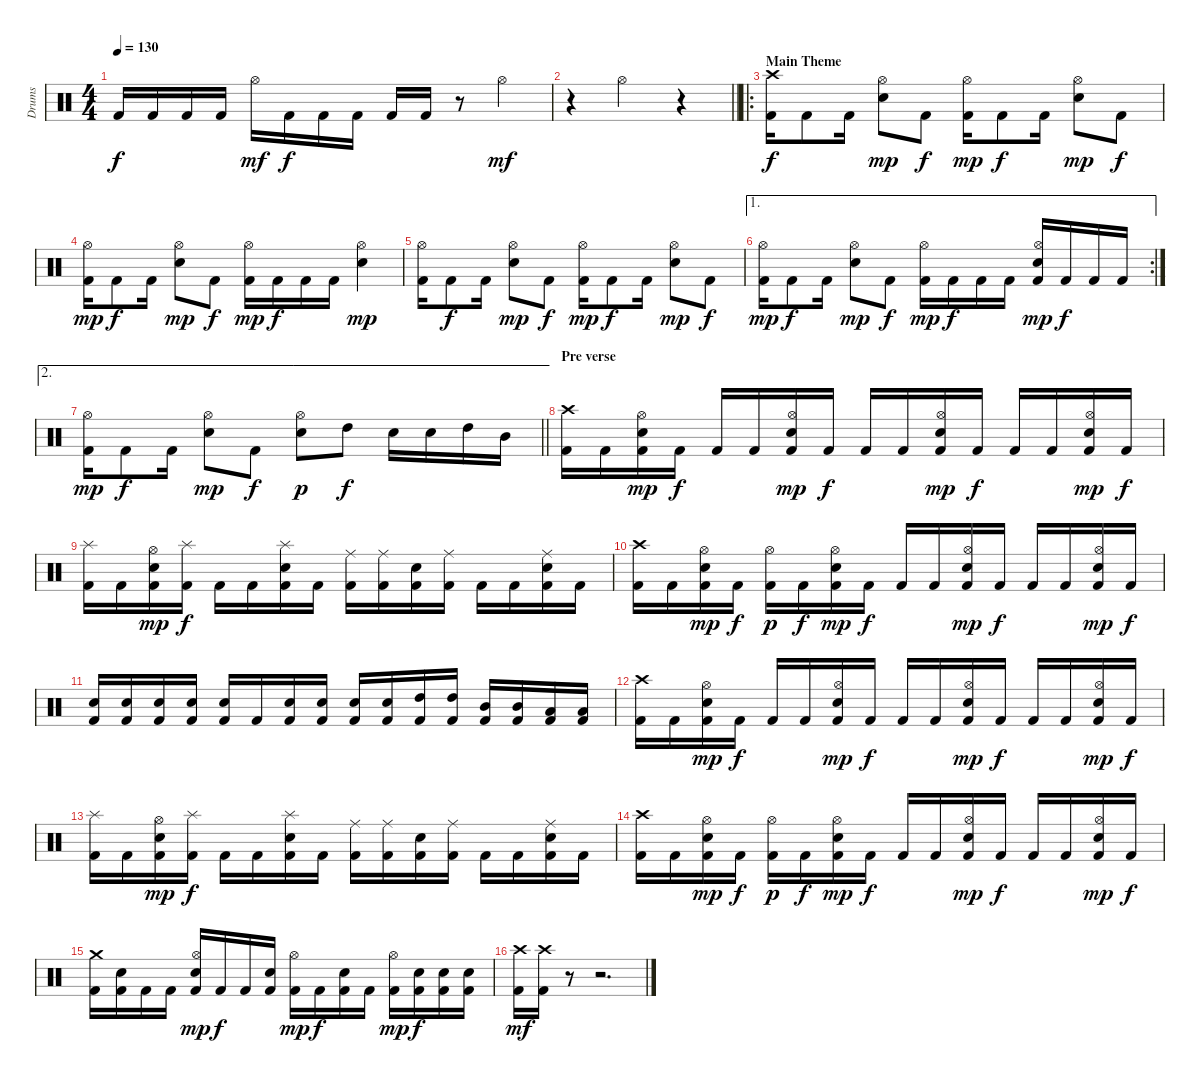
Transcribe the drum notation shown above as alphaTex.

\track ("Drums" "Drums") {instrument percussion}
\staff {score}
\articulation defaults
\ts (4 4)
\tempo 130
\clef neutral
\ks c "Kick (hit) 2".16{dy f} "Kick (hit) 2".16 "Kick (hit) 2".16 "Kick (hit) 2".16 "Hi-Hat (open)".16{dy mf} "Kick (hit) 2".16{dy f} "Kick (hit) 2".16 "Kick (hit) 2".16 "Kick (hit) 2".16 "Kick (hit) 2".16
r.8 "Hi-Hat (open)".4{dy mf} |
\barLineRight lightlight
r.4 "Hi-Hat (open)".2 r.4 |
\ro
\section ("" "Main Theme")
("Crash high (hit)" "Kick (hit) 2").16{dy f} "Kick (hit) 2".8 "Kick (hit) 2".16 ("Hi-Hat (open)" "Electric Snare (hit)").8{dy mp} "Kick (hit) 2".8{dy f} ("Hi-Hat (open)" "Kick (hit) 2").16{dy mp} "Kick (hit) 2".8{dy f} "Kick (hit) 2".16 ("Hi-Hat (open)" "Electric Snare (hit)").8{dy mp} "Kick (hit) 2".8{dy f} |
("Hi-Hat (open)" "Kick (hit) 2").16{dy mp} "Kick (hit) 2".8{dy f} "Kick (hit) 2".16 ("Hi-Hat (open)" "Electric Snare (hit)").8{dy mp} "Kick (hit) 2".8{dy f} ("Hi-Hat (open)" "Kick (hit) 2").16{dy mp} "Kick (hit) 2".16{dy f} "Kick (hit) 2".16 "Kick (hit) 2".16 ("Hi-Hat (open)" "Electric Snare (hit)").4{dy mp} |
("Hi-Hat (open)" "Kick (hit) 2").16 "Kick (hit) 2".8{dy f} "Kick (hit) 2".16 ("Hi-Hat (open)" "Electric Snare (hit)").8{dy mp} "Kick (hit) 2".8{dy f} ("Hi-Hat (open)" "Kick (hit) 2").16{dy mp} "Kick (hit) 2".8{dy f} "Kick (hit) 2".16 ("Hi-Hat (open)" "Electric Snare (hit)").8{dy mp} "Kick (hit) 2".8{dy f} |
\ae 1
\rc 2
("Hi-Hat (open)" "Kick (hit) 2").16{dy mp} "Kick (hit) 2".8{dy f} "Kick (hit) 2".16 ("Hi-Hat (open)" "Electric Snare (hit)").8{dy mp} "Kick (hit) 2".8{dy f} ("Hi-Hat (open)" "Kick (hit) 2").16{dy mp} "Kick (hit) 2".16{dy f} "Kick (hit) 2".16 "Kick (hit) 2".16 ("Hi-Hat (open)" "Electric Snare (hit)" "Kick (hit) 2").16{dy mp} "Kick (hit) 2".16{dy f} "Kick (hit) 2".16 "Kick (hit) 2".16 |
\ae 2
\barLineRight lightlight
("Hi-Hat (open)" "Kick (hit) 2").16{dy mp} "Kick (hit) 2".8{dy f} "Kick (hit) 2".16 ("Hi-Hat (open)" "Electric Snare (hit)").8{dy mp} "Kick (hit) 2".8{dy f} ("Hi-Hat (open)" "Electric Snare (hit)").8{dy p} "High Tom (hit)".8{dy f} "Electric Snare (hit)".16 "Electric Snare (hit)".16 "High Tom (hit)".16 "Mid Tom (hit)".16 |
\section ("" "Pre verse")
("Crash high (hit)" "Kick (hit) 2").16 "Kick (hit) 2".16 ("Hi-Hat (open)" "Electric Snare (hit)" "Kick (hit) 2").16{dy mp} "Kick (hit) 2".16{dy f} "Kick (hit) 2".16 "Kick (hit) 2".16 ("Hi-Hat (open)" "Electric Snare (hit)" "Kick (hit) 2").16{dy mp} "Kick (hit) 2".16{dy f} "Kick (hit) 2".16 "Kick (hit) 2".16 ("Hi-Hat (open)" "Electric Snare (hit)" "Kick (hit) 2").16{dy mp} "Kick (hit) 2".16{dy f} "Kick (hit) 2".16 "Kick (hit) 2".16 ("Hi-Hat (open)" "Electric Snare (hit)" "Kick (hit) 2").16{dy mp} "Kick (hit) 2".16{dy f} |
("Splash (hit)" "Kick (hit) 2").16 "Kick (hit) 2".16 ("Hi-Hat (open)" "Electric Snare (hit)" "Kick (hit) 2").16{dy mp} ("Splash (hit)" "Kick (hit) 2").16{dy f} "Kick (hit) 2".16 "Kick (hit) 2".16 ("Splash (hit)" "Electric Snare (hit)" "Kick (hit) 2").16 "Kick (hit) 2".16 ("Ride (middle)" "Kick (hit) 2").16 ("Ride (middle)" "Kick (hit) 2").16 ("Electric Snare (hit)" "Kick (hit) 2").16 ("Ride (middle)" "Kick (hit) 2").16 "Kick (hit) 2".16 "Kick (hit) 2".16 ("Ride (middle)" "Electric Snare (hit)" "Kick (hit) 2").16 "Kick (hit) 2".16 |
("Crash high (hit)" "Kick (hit) 2").16 "Kick (hit) 2".16 ("Hi-Hat (open)" "Electric Snare (hit)" "Kick (hit) 2").16{dy mp} "Kick (hit) 2".16{dy f} ("Hi-Hat (open)" "Kick (hit) 2").16{dy p} "Kick (hit) 2".16{dy f} ("Hi-Hat (open)" "Electric Snare (hit)" "Kick (hit) 2").16{dy mp} "Kick (hit) 2".16{dy f} "Kick (hit) 2".16 "Kick (hit) 2".16 ("Hi-Hat (open)" "Electric Snare (hit)" "Kick (hit) 2").16{dy mp} "Kick (hit) 2".16{dy f} "Kick (hit) 2".16 "Kick (hit) 2".16 ("Hi-Hat (open)" "Electric Snare (hit)" "Kick (hit) 2").16{dy mp} "Kick (hit) 2".16{dy f} |
("Electric Snare (hit)" "Kick (hit) 2").16 ("Electric Snare (hit)" "Kick (hit) 2").16 ("Electric Snare (hit)" "Kick (hit) 2").16 ("Electric Snare (hit)" "Kick (hit) 2").16 ("Electric Snare (hit)" "Kick (hit) 2").16 "Kick (hit) 2".16 ("Electric Snare (hit)" "Kick (hit) 2").16 ("Electric Snare (hit)" "Kick (hit) 2").16 ("Electric Snare (hit)" "Kick (hit) 2").16 ("Electric Snare (hit)" "Kick (hit) 2").16 ("High Tom (hit)" "Kick (hit) 2").16 ("High Tom (hit)" "Kick (hit) 2").16 ("Mid Tom (hit)" "Kick (hit) 2").16 ("Mid Tom (hit)" "Kick (hit) 2").16 ("Low Tom (hit)" "Kick (hit) 2").16 ("Low Tom (hit)" "Kick (hit) 2").16 |
("Crash high (hit)" "Kick (hit) 2").16 "Kick (hit) 2".16 ("Hi-Hat (open)" "Electric Snare (hit)" "Kick (hit) 2").16{dy mp} "Kick (hit) 2".16{dy f} "Kick (hit) 2".16 "Kick (hit) 2".16 ("Hi-Hat (open)" "Electric Snare (hit)" "Kick (hit) 2").16{dy mp} "Kick (hit) 2".16{dy f} "Kick (hit) 2".16 "Kick (hit) 2".16 ("Hi-Hat (open)" "Electric Snare (hit)" "Kick (hit) 2").16{dy mp} "Kick (hit) 2".16{dy f} "Kick (hit) 2".16 "Kick (hit) 2".16 ("Hi-Hat (open)" "Electric Snare (hit)" "Kick (hit) 2").16{dy mp} "Kick (hit) 2".16{dy f} |
("Splash (hit)" "Kick (hit) 2").16 "Kick (hit) 2".16 ("Hi-Hat (open)" "Electric Snare (hit)" "Kick (hit) 2").16{dy mp} ("Splash (hit)" "Kick (hit) 2").16{dy f} "Kick (hit) 2".16 "Kick (hit) 2".16 ("Splash (hit)" "Electric Snare (hit)" "Kick (hit) 2").16 "Kick (hit) 2".16 ("Ride (middle)" "Kick (hit) 2").16 ("Ride (middle)" "Kick (hit) 2").16 ("Electric Snare (hit)" "Kick (hit) 2").16 ("Ride (middle)" "Kick (hit) 2").16 "Kick (hit) 2".16 "Kick (hit) 2".16 ("Ride (middle)" "Electric Snare (hit)" "Kick (hit) 2").16 "Kick (hit) 2".16 |
("Crash high (hit)" "Kick (hit) 2").16 "Kick (hit) 2".16 ("Hi-Hat (open)" "Electric Snare (hit)" "Kick (hit) 2").16{dy mp} "Kick (hit) 2".16{dy f} ("Hi-Hat (open)" "Kick (hit) 2").16{dy p} "Kick (hit) 2".16{dy f} ("Hi-Hat (open)" "Electric Snare (hit)" "Kick (hit) 2").16{dy mp} "Kick (hit) 2".16{dy f} "Kick (hit) 2".16 "Kick (hit) 2".16 ("Hi-Hat (open)" "Electric Snare (hit)" "Kick (hit) 2").16{dy mp} "Kick (hit) 2".16{dy f} "Kick (hit) 2".16 "Kick (hit) 2".16 ("Hi-Hat (open)" "Electric Snare (hit)" "Kick (hit) 2").16{dy mp} "Kick (hit) 2".16{dy f} |
("Crash medium (hit)" "Kick (hit) 2").16 ("Electric Snare (hit)" "Kick (hit) 2").16 "Kick (hit) 2".16 "Kick (hit) 2".16 ("Hi-Hat (open)" "Electric Snare (hit)" "Kick (hit) 2").16{dy mp} "Kick (hit) 2".16{dy f} "Kick (hit) 2".16 ("Electric Snare (hit)" "Kick (hit) 2").16 ("Hi-Hat (open)" "Kick (hit) 2").16{dy mp} "Kick (hit) 2".16{dy f} ("Electric Snare (hit)" "Kick (hit) 2").16 "Kick (hit) 2".16 ("Hi-Hat (open)" "Kick (hit) 2").16{dy mp} ("Electric Snare (hit)" "Kick (hit) 2").16{dy f} ("Electric Snare (hit)" "Kick (hit) 2").16 ("Electric Snare (hit)" "Kick (hit) 2").16 |
("Crash high (hit)" "Kick (hit) 2").16{dy mf} ("Crash high (hit)" "Kick (hit) 2").16 r.8 r.2{d}
